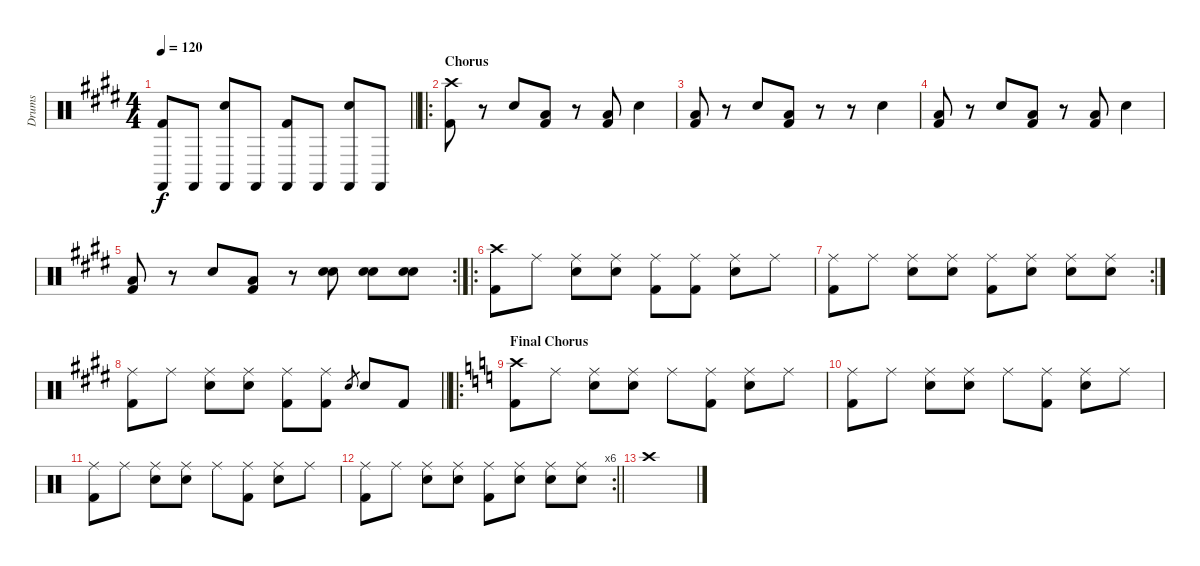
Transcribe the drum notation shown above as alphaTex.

\track ("Drums" "Drums") {instrument percussion}
\staff {score}
\articulation defaults
\ts (4 4)
\tempo 120
\clef neutral
\barLineRight lightlight
\ks e
("Castanets (hit)" "Kick (hit) 2").8{dy f} "Castanets (hit)".8 ("Castanets (hit)" "Snare (hit) 2").8 "Castanets (hit)".8 ("Castanets (hit)" "Kick (hit) 2").8 "Castanets (hit)".8 ("Castanets (hit)" "Snare (hit) 2").8 "Castanets (hit)".8 |
\ro
\section ("" "Chorus")
("Crash high (hit)" "Kick (hit) 2").8 r.8 "Electric Snare (hit)".8 ("Low Tom (hit)" "Kick (hit) 2").8 r.8 ("Low Tom (hit)" "Kick (hit) 2").8 "Electric Snare (hit)".4 |
("Low Tom (hit)" "Kick (hit) 2").8 r.8 "Electric Snare (hit)".8 ("Low Tom (hit)" "Kick (hit) 2").8 r.8 r.8 "Electric Snare (hit)".4 |
("Low Tom (hit)" "Kick (hit) 2").8 r.8 "Electric Snare (hit)".8 ("Low Tom (hit)" "Kick (hit) 2").8 r.8 ("Low Tom (hit)" "Kick (hit) 2").8 "Electric Snare (hit)".4 |
\rc 2
("Low Tom (hit)" "Kick (hit) 2").8 r.8 "Electric Snare (hit)".8 ("Low Tom (hit)" "Kick (hit) 2").8 r.8 ("Electric Snare (hit)" "Electric Snare (hit)").8 ("Electric Snare (hit)" "Electric Snare (hit)").8 ("Electric Snare (hit)" "Electric Snare (hit)").8 |
\ro
("Crash high (hit)" "Kick (hit) 2").8 "Ride (middle)".8 ("Ride (middle)" "Electric Snare (hit)").8 ("Ride (middle)" "Electric Snare (hit)").8 ("Ride (middle)" "Kick (hit) 2").8 ("Ride (middle)" "Kick (hit) 2").8 ("Ride (middle)" "Electric Snare (hit)").8 "Ride (middle)".8 |
\rc 2
("Ride (middle)" "Kick (hit) 2").8 "Ride (middle)".8 ("Ride (middle)" "Electric Snare (hit)").8 ("Ride (middle)" "Electric Snare (hit)").8 ("Ride (middle)" "Kick (hit) 2").8 ("Ride (middle)" "Electric Snare (hit)").8 ("Ride (middle)" "Electric Snare (hit)").8 ("Ride (middle)" "Electric Snare (hit)").8 |
\barLineRight lightlight
\ks c#minor
("Ride (middle)" "Kick (hit) 2").8 "Ride (middle)".8 ("Ride (middle)" "Electric Snare (hit)").8 ("Ride (middle)" "Electric Snare (hit)").8 ("Ride (middle)" "Kick (hit) 2").8 ("Ride (middle)" "Kick (hit) 2").8 "Electric Snare (hit)".8{gr} "Electric Snare (hit)".8 "Kick (hit) 2".8 |
\ro
\section ("" "Final Chorus")
\ks c
("Crash high (hit)" "Kick (hit) 2").8 "Ride (middle)".8 ("Ride (middle)" "Electric Snare (hit)").8 ("Ride (middle)" "Electric Snare (hit)").8 "Ride (middle)".8 ("Ride (middle)" "Kick (hit) 2").8 ("Ride (middle)" "Electric Snare (hit)").8 "Ride (middle)".8 |
("Ride (middle)" "Kick (hit) 2").8 "Ride (middle)".8 ("Ride (middle)" "Electric Snare (hit)").8 ("Ride (middle)" "Electric Snare (hit)").8 "Ride (middle)".8 ("Ride (middle)" "Kick (hit) 2").8 ("Ride (middle)" "Electric Snare (hit)").8 "Ride (middle)".8 |
("Ride (middle)" "Kick (hit) 2").8 "Ride (middle)".8 ("Ride (middle)" "Electric Snare (hit)").8 ("Ride (middle)" "Electric Snare (hit)").8 "Ride (middle)".8 ("Ride (middle)" "Kick (hit) 2").8 ("Ride (middle)" "Electric Snare (hit)").8 "Ride (middle)".8 |
\rc 6
\barLineRight lightlight
("Ride (middle)" "Kick (hit) 2").8 "Ride (middle)".8 ("Ride (middle)" "Electric Snare (hit)").8 ("Ride (middle)" "Electric Snare (hit)").8 ("Ride (middle)" "Kick (hit) 2").8 ("Ride (middle)" "Electric Snare (hit)").8 ("Ride (middle)" "Electric Snare (hit)").8 ("Ride (middle)" "Electric Snare (hit)").8 |
"Crash high (hit)".1
